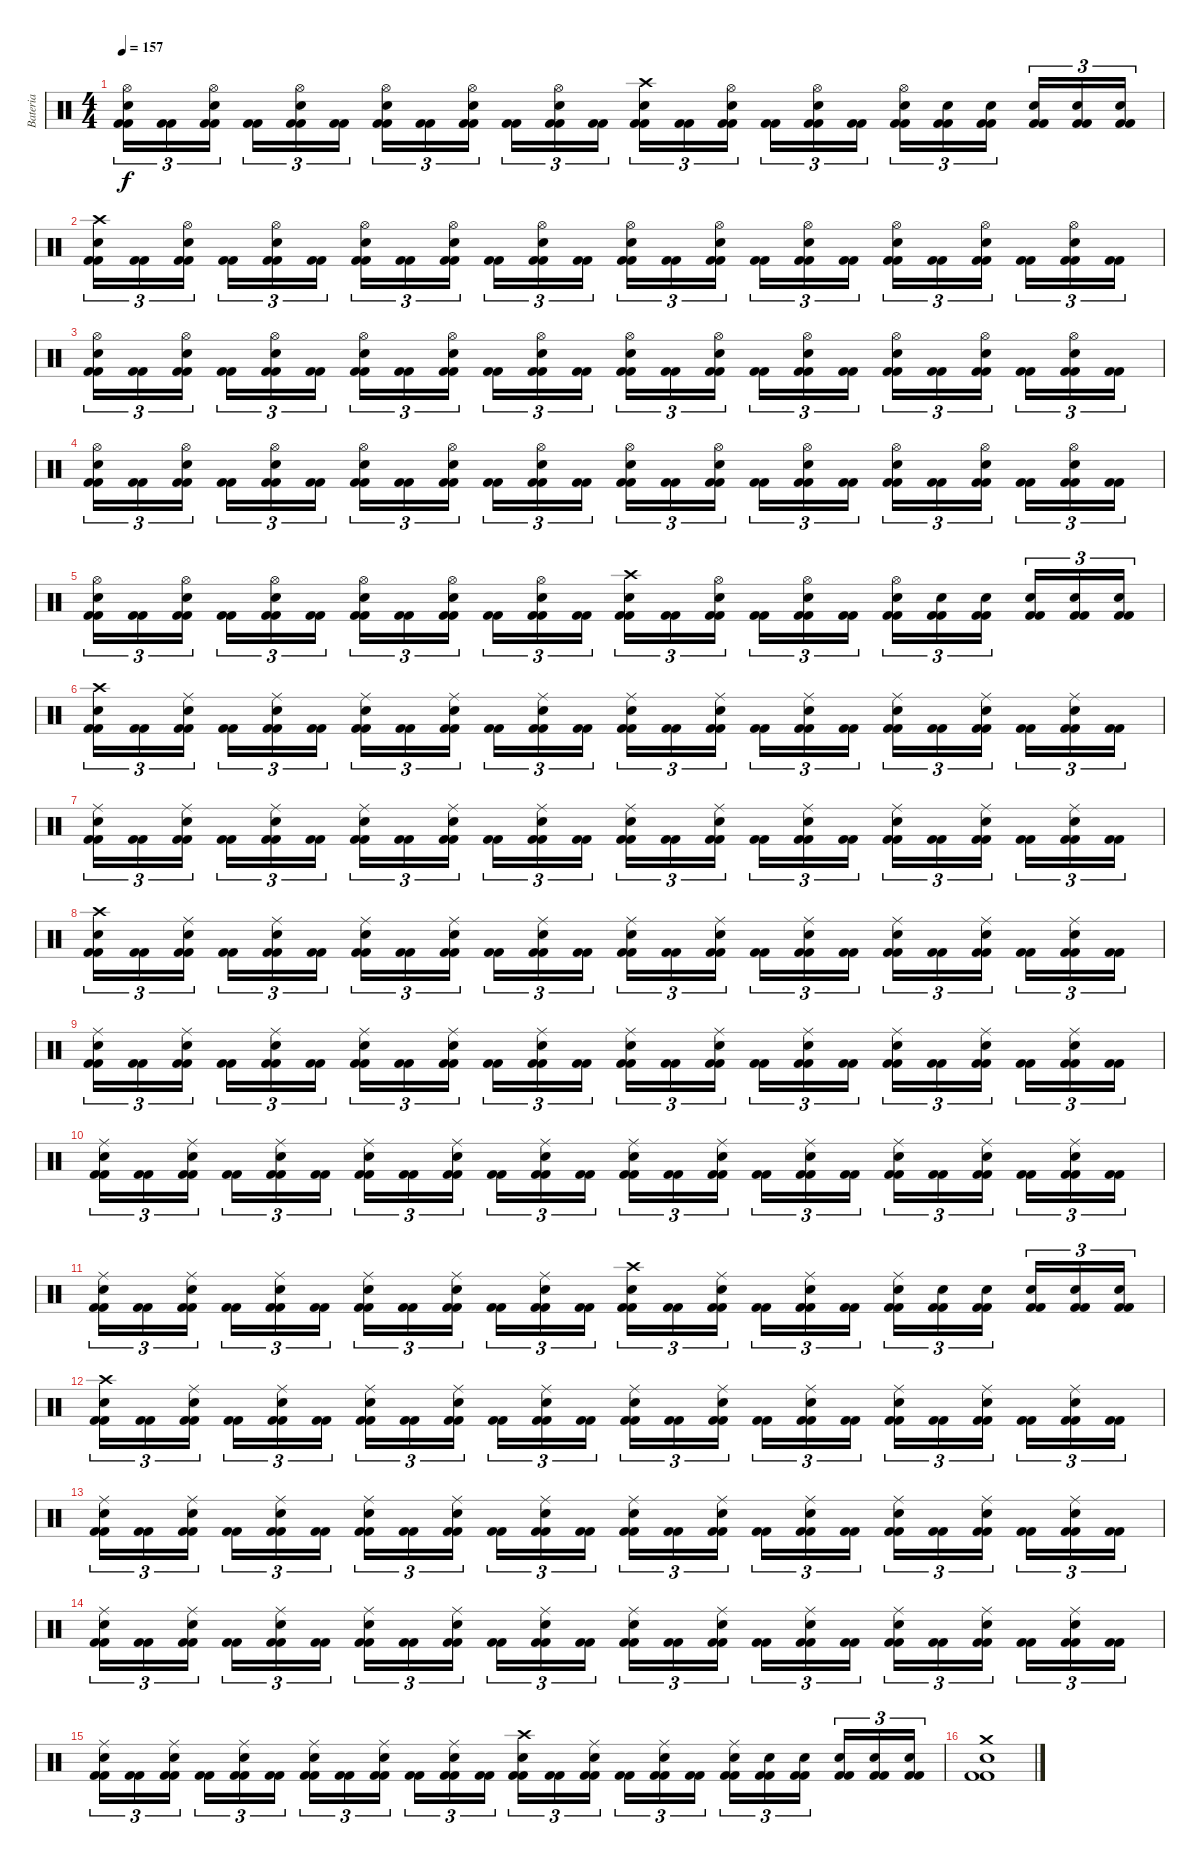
\track ("Bateria" "Bateria") {instrument percussion}
\staff {score}
\articulation defaults
\ts (4 4)
\tempo 157
\clef neutral
\ks c
("Kick (hit) 2" "Kick (hit) 2" "Snare (hit) 2" "Hi-Hat (open)").16{tu (3 2) dy f} ("Kick (hit) 2" "Kick (hit) 2").16{tu (3 2)} ("Kick (hit) 2" "Kick (hit) 2" "Snare (hit) 2" "Hi-Hat (open)").16{tu (3 2)} ("Kick (hit) 2" "Kick (hit) 2").16{tu (3 2)} ("Kick (hit) 2" "Kick (hit) 2" "Snare (hit) 2" "Hi-Hat (open)").16{tu (3 2)} ("Kick (hit) 2" "Kick (hit) 2").16{tu (3 2)} ("Kick (hit) 2" "Kick (hit) 2" "Snare (hit) 2" "Hi-Hat (open)").16{tu (3 2)} ("Kick (hit) 2" "Kick (hit) 2").16{tu (3 2)} ("Kick (hit) 2" "Kick (hit) 2" "Snare (hit) 2" "Hi-Hat (open)").16{tu (3 2)} ("Kick (hit) 2" "Kick (hit) 2").16{tu (3 2)} ("Kick (hit) 2" "Kick (hit) 2" "Snare (hit) 2" "Hi-Hat (open)").16{tu (3 2)} ("Kick (hit) 2" "Kick (hit) 2").16{tu (3 2)} ("Kick (hit) 2" "Kick (hit) 2" "Snare (hit) 2" "Crash high (hit)").16{tu (3 2)} ("Kick (hit) 2" "Kick (hit) 2").16{tu (3 2)} ("Kick (hit) 2" "Kick (hit) 2" "Snare (hit) 2" "Hi-Hat (open)").16{tu (3 2)} ("Kick (hit) 2" "Kick (hit) 2").16{tu (3 2)} ("Kick (hit) 2" "Kick (hit) 2" "Snare (hit) 2" "Hi-Hat (open)").16{tu (3 2)} ("Kick (hit) 2" "Kick (hit) 2").16{tu (3 2)} ("Kick (hit) 2" "Kick (hit) 2" "Snare (hit) 2" "Hi-Hat (open)").16{tu (3 2)} ("Kick (hit) 2" "Kick (hit) 2" "Snare (hit) 2").16{tu (3 2)} ("Kick (hit) 2" "Kick (hit) 2" "Snare (hit) 2").16{tu (3 2)} ("Kick (hit) 2" "Kick (hit) 2" "Snare (hit) 2").16{tu (3 2)} ("Kick (hit) 2" "Kick (hit) 2" "Snare (hit) 2").16{tu (3 2)} ("Kick (hit) 2" "Kick (hit) 2" "Snare (hit) 2").16{tu (3 2)} |
("Kick (hit) 2" "Kick (hit) 2" "Snare (hit) 2" "Crash high (hit)").16{tu (3 2)} ("Kick (hit) 2" "Kick (hit) 2").16{tu (3 2)} ("Kick (hit) 2" "Kick (hit) 2" "Snare (hit) 2" "Hi-Hat (open)").16{tu (3 2)} ("Kick (hit) 2" "Kick (hit) 2").16{tu (3 2)} ("Kick (hit) 2" "Kick (hit) 2" "Snare (hit) 2" "Hi-Hat (open)").16{tu (3 2)} ("Kick (hit) 2" "Kick (hit) 2").16{tu (3 2)} ("Kick (hit) 2" "Kick (hit) 2" "Snare (hit) 2" "Hi-Hat (open)").16{tu (3 2)} ("Kick (hit) 2" "Kick (hit) 2").16{tu (3 2)} ("Kick (hit) 2" "Kick (hit) 2" "Snare (hit) 2" "Hi-Hat (open)").16{tu (3 2)} ("Kick (hit) 2" "Kick (hit) 2").16{tu (3 2)} ("Kick (hit) 2" "Kick (hit) 2" "Snare (hit) 2" "Hi-Hat (open)").16{tu (3 2)} ("Kick (hit) 2" "Kick (hit) 2").16{tu (3 2)} ("Kick (hit) 2" "Kick (hit) 2" "Snare (hit) 2" "Hi-Hat (open)").16{tu (3 2)} ("Kick (hit) 2" "Kick (hit) 2").16{tu (3 2)} ("Kick (hit) 2" "Kick (hit) 2" "Snare (hit) 2" "Hi-Hat (open)").16{tu (3 2)} ("Kick (hit) 2" "Kick (hit) 2").16{tu (3 2)} ("Kick (hit) 2" "Kick (hit) 2" "Snare (hit) 2" "Hi-Hat (open)").16{tu (3 2)} ("Kick (hit) 2" "Kick (hit) 2").16{tu (3 2)} ("Kick (hit) 2" "Kick (hit) 2" "Snare (hit) 2" "Hi-Hat (open)").16{tu (3 2)} ("Kick (hit) 2" "Kick (hit) 2").16{tu (3 2)} ("Kick (hit) 2" "Kick (hit) 2" "Snare (hit) 2" "Hi-Hat (open)").16{tu (3 2)} ("Kick (hit) 2" "Kick (hit) 2").16{tu (3 2)} ("Kick (hit) 2" "Kick (hit) 2" "Snare (hit) 2" "Hi-Hat (open)").16{tu (3 2)} ("Kick (hit) 2" "Kick (hit) 2").16{tu (3 2)} |
("Kick (hit) 2" "Kick (hit) 2" "Snare (hit) 2" "Hi-Hat (open)").16{tu (3 2)} ("Kick (hit) 2" "Kick (hit) 2").16{tu (3 2)} ("Kick (hit) 2" "Kick (hit) 2" "Snare (hit) 2" "Hi-Hat (open)").16{tu (3 2)} ("Kick (hit) 2" "Kick (hit) 2").16{tu (3 2)} ("Kick (hit) 2" "Kick (hit) 2" "Snare (hit) 2" "Hi-Hat (open)").16{tu (3 2)} ("Kick (hit) 2" "Kick (hit) 2").16{tu (3 2)} ("Kick (hit) 2" "Kick (hit) 2" "Snare (hit) 2" "Hi-Hat (open)").16{tu (3 2)} ("Kick (hit) 2" "Kick (hit) 2").16{tu (3 2)} ("Kick (hit) 2" "Kick (hit) 2" "Snare (hit) 2" "Hi-Hat (open)").16{tu (3 2)} ("Kick (hit) 2" "Kick (hit) 2").16{tu (3 2)} ("Kick (hit) 2" "Kick (hit) 2" "Snare (hit) 2" "Hi-Hat (open)").16{tu (3 2)} ("Kick (hit) 2" "Kick (hit) 2").16{tu (3 2)} ("Kick (hit) 2" "Kick (hit) 2" "Snare (hit) 2" "Hi-Hat (open)").16{tu (3 2)} ("Kick (hit) 2" "Kick (hit) 2").16{tu (3 2)} ("Kick (hit) 2" "Kick (hit) 2" "Snare (hit) 2" "Hi-Hat (open)").16{tu (3 2)} ("Kick (hit) 2" "Kick (hit) 2").16{tu (3 2)} ("Kick (hit) 2" "Kick (hit) 2" "Snare (hit) 2" "Hi-Hat (open)").16{tu (3 2)} ("Kick (hit) 2" "Kick (hit) 2").16{tu (3 2)} ("Kick (hit) 2" "Kick (hit) 2" "Snare (hit) 2" "Hi-Hat (open)").16{tu (3 2)} ("Kick (hit) 2" "Kick (hit) 2").16{tu (3 2)} ("Kick (hit) 2" "Kick (hit) 2" "Snare (hit) 2" "Hi-Hat (open)").16{tu (3 2)} ("Kick (hit) 2" "Kick (hit) 2").16{tu (3 2)} ("Kick (hit) 2" "Kick (hit) 2" "Snare (hit) 2" "Hi-Hat (open)").16{tu (3 2)} ("Kick (hit) 2" "Kick (hit) 2").16{tu (3 2)} |
("Kick (hit) 2" "Kick (hit) 2" "Snare (hit) 2" "Hi-Hat (open)").16{tu (3 2)} ("Kick (hit) 2" "Kick (hit) 2").16{tu (3 2)} ("Kick (hit) 2" "Kick (hit) 2" "Snare (hit) 2" "Hi-Hat (open)").16{tu (3 2)} ("Kick (hit) 2" "Kick (hit) 2").16{tu (3 2)} ("Kick (hit) 2" "Kick (hit) 2" "Snare (hit) 2" "Hi-Hat (open)").16{tu (3 2)} ("Kick (hit) 2" "Kick (hit) 2").16{tu (3 2)} ("Kick (hit) 2" "Kick (hit) 2" "Snare (hit) 2" "Hi-Hat (open)").16{tu (3 2)} ("Kick (hit) 2" "Kick (hit) 2").16{tu (3 2)} ("Kick (hit) 2" "Kick (hit) 2" "Snare (hit) 2" "Hi-Hat (open)").16{tu (3 2)} ("Kick (hit) 2" "Kick (hit) 2").16{tu (3 2)} ("Kick (hit) 2" "Kick (hit) 2" "Snare (hit) 2" "Hi-Hat (open)").16{tu (3 2)} ("Kick (hit) 2" "Kick (hit) 2").16{tu (3 2)} ("Kick (hit) 2" "Kick (hit) 2" "Snare (hit) 2" "Hi-Hat (open)").16{tu (3 2)} ("Kick (hit) 2" "Kick (hit) 2").16{tu (3 2)} ("Kick (hit) 2" "Kick (hit) 2" "Snare (hit) 2" "Hi-Hat (open)").16{tu (3 2)} ("Kick (hit) 2" "Kick (hit) 2").16{tu (3 2)} ("Kick (hit) 2" "Kick (hit) 2" "Snare (hit) 2" "Hi-Hat (open)").16{tu (3 2)} ("Kick (hit) 2" "Kick (hit) 2").16{tu (3 2)} ("Kick (hit) 2" "Kick (hit) 2" "Snare (hit) 2" "Hi-Hat (open)").16{tu (3 2)} ("Kick (hit) 2" "Kick (hit) 2").16{tu (3 2)} ("Kick (hit) 2" "Kick (hit) 2" "Snare (hit) 2" "Hi-Hat (open)").16{tu (3 2)} ("Kick (hit) 2" "Kick (hit) 2").16{tu (3 2)} ("Kick (hit) 2" "Kick (hit) 2" "Snare (hit) 2" "Hi-Hat (open)").16{tu (3 2)} ("Kick (hit) 2" "Kick (hit) 2").16{tu (3 2)} |
("Kick (hit) 2" "Kick (hit) 2" "Snare (hit) 2" "Hi-Hat (open)").16{tu (3 2)} ("Kick (hit) 2" "Kick (hit) 2").16{tu (3 2)} ("Kick (hit) 2" "Kick (hit) 2" "Snare (hit) 2" "Hi-Hat (open)").16{tu (3 2)} ("Kick (hit) 2" "Kick (hit) 2").16{tu (3 2)} ("Kick (hit) 2" "Kick (hit) 2" "Snare (hit) 2" "Hi-Hat (open)").16{tu (3 2)} ("Kick (hit) 2" "Kick (hit) 2").16{tu (3 2)} ("Kick (hit) 2" "Kick (hit) 2" "Snare (hit) 2" "Hi-Hat (open)").16{tu (3 2)} ("Kick (hit) 2" "Kick (hit) 2").16{tu (3 2)} ("Kick (hit) 2" "Kick (hit) 2" "Snare (hit) 2" "Hi-Hat (open)").16{tu (3 2)} ("Kick (hit) 2" "Kick (hit) 2").16{tu (3 2)} ("Kick (hit) 2" "Kick (hit) 2" "Snare (hit) 2" "Hi-Hat (open)").16{tu (3 2)} ("Kick (hit) 2" "Kick (hit) 2").16{tu (3 2)} ("Kick (hit) 2" "Kick (hit) 2" "Snare (hit) 2" "Crash high (hit)").16{tu (3 2)} ("Kick (hit) 2" "Kick (hit) 2").16{tu (3 2)} ("Kick (hit) 2" "Kick (hit) 2" "Snare (hit) 2" "Hi-Hat (open)").16{tu (3 2)} ("Kick (hit) 2" "Kick (hit) 2").16{tu (3 2)} ("Kick (hit) 2" "Kick (hit) 2" "Snare (hit) 2" "Hi-Hat (open)").16{tu (3 2)} ("Kick (hit) 2" "Kick (hit) 2").16{tu (3 2)} ("Kick (hit) 2" "Kick (hit) 2" "Snare (hit) 2" "Hi-Hat (open)").16{tu (3 2)} ("Kick (hit) 2" "Kick (hit) 2" "Snare (hit) 2").16{tu (3 2)} ("Kick (hit) 2" "Kick (hit) 2" "Snare (hit) 2").16{tu (3 2)} ("Kick (hit) 2" "Kick (hit) 2" "Snare (hit) 2").16{tu (3 2)} ("Kick (hit) 2" "Kick (hit) 2" "Snare (hit) 2").16{tu (3 2)} ("Kick (hit) 2" "Kick (hit) 2" "Snare (hit) 2").16{tu (3 2)} |
("Kick (hit) 2" "Kick (hit) 2" "Snare (hit) 2" "Crash high (hit)").16{tu (3 2)} ("Kick (hit) 2" "Kick (hit) 2").16{tu (3 2)} ("Kick (hit) 2" "Kick (hit) 2" "Snare (hit) 2" "Ride (middle)").16{tu (3 2)} ("Kick (hit) 2" "Kick (hit) 2").16{tu (3 2)} ("Kick (hit) 2" "Kick (hit) 2" "Snare (hit) 2" "Ride (middle)").16{tu (3 2)} ("Kick (hit) 2" "Kick (hit) 2").16{tu (3 2)} ("Kick (hit) 2" "Kick (hit) 2" "Snare (hit) 2" "Ride (middle)").16{tu (3 2)} ("Kick (hit) 2" "Kick (hit) 2").16{tu (3 2)} ("Kick (hit) 2" "Kick (hit) 2" "Snare (hit) 2" "Ride (middle)").16{tu (3 2)} ("Kick (hit) 2" "Kick (hit) 2").16{tu (3 2)} ("Kick (hit) 2" "Kick (hit) 2" "Snare (hit) 2" "Ride (middle)").16{tu (3 2)} ("Kick (hit) 2" "Kick (hit) 2").16{tu (3 2)} ("Kick (hit) 2" "Kick (hit) 2" "Snare (hit) 2" "Ride (middle)").16{tu (3 2)} ("Kick (hit) 2" "Kick (hit) 2").16{tu (3 2)} ("Kick (hit) 2" "Kick (hit) 2" "Snare (hit) 2" "Ride (middle)").16{tu (3 2)} ("Kick (hit) 2" "Kick (hit) 2").16{tu (3 2)} ("Kick (hit) 2" "Kick (hit) 2" "Snare (hit) 2" "Ride (middle)").16{tu (3 2)} ("Kick (hit) 2" "Kick (hit) 2").16{tu (3 2)} ("Kick (hit) 2" "Kick (hit) 2" "Snare (hit) 2" "Ride (middle)").16{tu (3 2)} ("Kick (hit) 2" "Kick (hit) 2").16{tu (3 2)} ("Kick (hit) 2" "Kick (hit) 2" "Snare (hit) 2" "Ride (middle)").16{tu (3 2)} ("Kick (hit) 2" "Kick (hit) 2").16{tu (3 2)} ("Kick (hit) 2" "Kick (hit) 2" "Snare (hit) 2" "Ride (middle)").16{tu (3 2)} ("Kick (hit) 2" "Kick (hit) 2").16{tu (3 2)} |
("Kick (hit) 2" "Kick (hit) 2" "Snare (hit) 2" "Ride (middle)").16{tu (3 2)} ("Kick (hit) 2" "Kick (hit) 2").16{tu (3 2)} ("Kick (hit) 2" "Kick (hit) 2" "Snare (hit) 2" "Ride (middle)").16{tu (3 2)} ("Kick (hit) 2" "Kick (hit) 2").16{tu (3 2)} ("Kick (hit) 2" "Kick (hit) 2" "Snare (hit) 2" "Ride (middle)").16{tu (3 2)} ("Kick (hit) 2" "Kick (hit) 2").16{tu (3 2)} ("Kick (hit) 2" "Kick (hit) 2" "Snare (hit) 2" "Ride (middle)").16{tu (3 2)} ("Kick (hit) 2" "Kick (hit) 2").16{tu (3 2)} ("Kick (hit) 2" "Kick (hit) 2" "Snare (hit) 2" "Ride (middle)").16{tu (3 2)} ("Kick (hit) 2" "Kick (hit) 2").16{tu (3 2)} ("Kick (hit) 2" "Kick (hit) 2" "Snare (hit) 2" "Ride (middle)").16{tu (3 2)} ("Kick (hit) 2" "Kick (hit) 2").16{tu (3 2)} ("Kick (hit) 2" "Kick (hit) 2" "Snare (hit) 2" "Ride (middle)").16{tu (3 2)} ("Kick (hit) 2" "Kick (hit) 2").16{tu (3 2)} ("Kick (hit) 2" "Kick (hit) 2" "Snare (hit) 2" "Ride (middle)").16{tu (3 2)} ("Kick (hit) 2" "Kick (hit) 2").16{tu (3 2)} ("Kick (hit) 2" "Kick (hit) 2" "Snare (hit) 2" "Ride (middle)").16{tu (3 2)} ("Kick (hit) 2" "Kick (hit) 2").16{tu (3 2)} ("Kick (hit) 2" "Kick (hit) 2" "Snare (hit) 2" "Ride (middle)").16{tu (3 2)} ("Kick (hit) 2" "Kick (hit) 2").16{tu (3 2)} ("Kick (hit) 2" "Kick (hit) 2" "Snare (hit) 2" "Ride (middle)").16{tu (3 2)} ("Kick (hit) 2" "Kick (hit) 2").16{tu (3 2)} ("Kick (hit) 2" "Kick (hit) 2" "Snare (hit) 2" "Ride (middle)").16{tu (3 2)} ("Kick (hit) 2" "Kick (hit) 2").16{tu (3 2)} |
("Kick (hit) 2" "Kick (hit) 2" "Snare (hit) 2" "Crash high (hit)").16{tu (3 2)} ("Kick (hit) 2" "Kick (hit) 2").16{tu (3 2)} ("Kick (hit) 2" "Kick (hit) 2" "Snare (hit) 2" "Ride (middle)").16{tu (3 2)} ("Kick (hit) 2" "Kick (hit) 2").16{tu (3 2)} ("Kick (hit) 2" "Kick (hit) 2" "Snare (hit) 2" "Ride (middle)").16{tu (3 2)} ("Kick (hit) 2" "Kick (hit) 2").16{tu (3 2)} ("Kick (hit) 2" "Kick (hit) 2" "Snare (hit) 2" "Ride (middle)").16{tu (3 2)} ("Kick (hit) 2" "Kick (hit) 2").16{tu (3 2)} ("Kick (hit) 2" "Kick (hit) 2" "Snare (hit) 2" "Ride (middle)").16{tu (3 2)} ("Kick (hit) 2" "Kick (hit) 2").16{tu (3 2)} ("Kick (hit) 2" "Kick (hit) 2" "Snare (hit) 2" "Ride (middle)").16{tu (3 2)} ("Kick (hit) 2" "Kick (hit) 2").16{tu (3 2)} ("Kick (hit) 2" "Kick (hit) 2" "Snare (hit) 2" "Ride (middle)").16{tu (3 2)} ("Kick (hit) 2" "Kick (hit) 2").16{tu (3 2)} ("Kick (hit) 2" "Kick (hit) 2" "Snare (hit) 2" "Ride (middle)").16{tu (3 2)} ("Kick (hit) 2" "Kick (hit) 2").16{tu (3 2)} ("Kick (hit) 2" "Kick (hit) 2" "Snare (hit) 2" "Ride (middle)").16{tu (3 2)} ("Kick (hit) 2" "Kick (hit) 2").16{tu (3 2)} ("Kick (hit) 2" "Kick (hit) 2" "Snare (hit) 2" "Ride (middle)").16{tu (3 2)} ("Kick (hit) 2" "Kick (hit) 2").16{tu (3 2)} ("Kick (hit) 2" "Kick (hit) 2" "Snare (hit) 2" "Ride (middle)").16{tu (3 2)} ("Kick (hit) 2" "Kick (hit) 2").16{tu (3 2)} ("Kick (hit) 2" "Kick (hit) 2" "Snare (hit) 2" "Ride (middle)").16{tu (3 2)} ("Kick (hit) 2" "Kick (hit) 2").16{tu (3 2)} |
("Kick (hit) 2" "Kick (hit) 2" "Snare (hit) 2" "Ride (middle)").16{tu (3 2)} ("Kick (hit) 2" "Kick (hit) 2").16{tu (3 2)} ("Kick (hit) 2" "Kick (hit) 2" "Snare (hit) 2" "Ride (middle)").16{tu (3 2)} ("Kick (hit) 2" "Kick (hit) 2").16{tu (3 2)} ("Kick (hit) 2" "Kick (hit) 2" "Snare (hit) 2" "Ride (middle)").16{tu (3 2)} ("Kick (hit) 2" "Kick (hit) 2").16{tu (3 2)} ("Kick (hit) 2" "Kick (hit) 2" "Snare (hit) 2" "Ride (middle)").16{tu (3 2)} ("Kick (hit) 2" "Kick (hit) 2").16{tu (3 2)} ("Kick (hit) 2" "Kick (hit) 2" "Snare (hit) 2" "Ride (middle)").16{tu (3 2)} ("Kick (hit) 2" "Kick (hit) 2").16{tu (3 2)} ("Kick (hit) 2" "Kick (hit) 2" "Snare (hit) 2" "Ride (middle)").16{tu (3 2)} ("Kick (hit) 2" "Kick (hit) 2").16{tu (3 2)} ("Kick (hit) 2" "Kick (hit) 2" "Snare (hit) 2" "Ride (middle)").16{tu (3 2)} ("Kick (hit) 2" "Kick (hit) 2").16{tu (3 2)} ("Kick (hit) 2" "Kick (hit) 2" "Snare (hit) 2" "Ride (middle)").16{tu (3 2)} ("Kick (hit) 2" "Kick (hit) 2").16{tu (3 2)} ("Kick (hit) 2" "Kick (hit) 2" "Snare (hit) 2" "Ride (middle)").16{tu (3 2)} ("Kick (hit) 2" "Kick (hit) 2").16{tu (3 2)} ("Kick (hit) 2" "Kick (hit) 2" "Snare (hit) 2" "Ride (middle)").16{tu (3 2)} ("Kick (hit) 2" "Kick (hit) 2").16{tu (3 2)} ("Kick (hit) 2" "Kick (hit) 2" "Snare (hit) 2" "Ride (middle)").16{tu (3 2)} ("Kick (hit) 2" "Kick (hit) 2").16{tu (3 2)} ("Kick (hit) 2" "Kick (hit) 2" "Snare (hit) 2" "Ride (middle)").16{tu (3 2)} ("Kick (hit) 2" "Kick (hit) 2").16{tu (3 2)} |
("Kick (hit) 2" "Kick (hit) 2" "Snare (hit) 2" "Ride (middle)").16{tu (3 2)} ("Kick (hit) 2" "Kick (hit) 2").16{tu (3 2)} ("Kick (hit) 2" "Kick (hit) 2" "Snare (hit) 2" "Ride (middle)").16{tu (3 2)} ("Kick (hit) 2" "Kick (hit) 2").16{tu (3 2)} ("Kick (hit) 2" "Kick (hit) 2" "Snare (hit) 2" "Ride (middle)").16{tu (3 2)} ("Kick (hit) 2" "Kick (hit) 2").16{tu (3 2)} ("Kick (hit) 2" "Kick (hit) 2" "Snare (hit) 2" "Ride (middle)").16{tu (3 2)} ("Kick (hit) 2" "Kick (hit) 2").16{tu (3 2)} ("Kick (hit) 2" "Kick (hit) 2" "Snare (hit) 2" "Ride (middle)").16{tu (3 2)} ("Kick (hit) 2" "Kick (hit) 2").16{tu (3 2)} ("Kick (hit) 2" "Kick (hit) 2" "Snare (hit) 2" "Ride (middle)").16{tu (3 2)} ("Kick (hit) 2" "Kick (hit) 2").16{tu (3 2)} ("Kick (hit) 2" "Kick (hit) 2" "Snare (hit) 2" "Ride (middle)").16{tu (3 2)} ("Kick (hit) 2" "Kick (hit) 2").16{tu (3 2)} ("Kick (hit) 2" "Kick (hit) 2" "Snare (hit) 2" "Ride (middle)").16{tu (3 2)} ("Kick (hit) 2" "Kick (hit) 2").16{tu (3 2)} ("Kick (hit) 2" "Kick (hit) 2" "Snare (hit) 2" "Ride (middle)").16{tu (3 2)} ("Kick (hit) 2" "Kick (hit) 2").16{tu (3 2)} ("Kick (hit) 2" "Kick (hit) 2" "Snare (hit) 2" "Ride (middle)").16{tu (3 2)} ("Kick (hit) 2" "Kick (hit) 2").16{tu (3 2)} ("Kick (hit) 2" "Kick (hit) 2" "Snare (hit) 2" "Ride (middle)").16{tu (3 2)} ("Kick (hit) 2" "Kick (hit) 2").16{tu (3 2)} ("Kick (hit) 2" "Kick (hit) 2" "Snare (hit) 2" "Ride (middle)").16{tu (3 2)} ("Kick (hit) 2" "Kick (hit) 2").16{tu (3 2)} |
("Kick (hit) 2" "Kick (hit) 2" "Snare (hit) 2" "Ride (middle)").16{tu (3 2)} ("Kick (hit) 2" "Kick (hit) 2").16{tu (3 2)} ("Kick (hit) 2" "Kick (hit) 2" "Snare (hit) 2" "Ride (middle)").16{tu (3 2)} ("Kick (hit) 2" "Kick (hit) 2").16{tu (3 2)} ("Kick (hit) 2" "Kick (hit) 2" "Snare (hit) 2" "Ride (middle)").16{tu (3 2)} ("Kick (hit) 2" "Kick (hit) 2").16{tu (3 2)} ("Kick (hit) 2" "Kick (hit) 2" "Snare (hit) 2" "Ride (middle)").16{tu (3 2)} ("Kick (hit) 2" "Kick (hit) 2").16{tu (3 2)} ("Kick (hit) 2" "Kick (hit) 2" "Snare (hit) 2" "Ride (middle)").16{tu (3 2)} ("Kick (hit) 2" "Kick (hit) 2").16{tu (3 2)} ("Kick (hit) 2" "Kick (hit) 2" "Snare (hit) 2" "Ride (middle)").16{tu (3 2)} ("Kick (hit) 2" "Kick (hit) 2").16{tu (3 2)} ("Kick (hit) 2" "Kick (hit) 2" "Snare (hit) 2" "Crash high (hit)").16{tu (3 2)} ("Kick (hit) 2" "Kick (hit) 2").16{tu (3 2)} ("Kick (hit) 2" "Kick (hit) 2" "Snare (hit) 2" "Ride (middle)").16{tu (3 2)} ("Kick (hit) 2" "Kick (hit) 2").16{tu (3 2)} ("Kick (hit) 2" "Kick (hit) 2" "Snare (hit) 2" "Ride (middle)").16{tu (3 2)} ("Kick (hit) 2" "Kick (hit) 2").16{tu (3 2)} ("Kick (hit) 2" "Kick (hit) 2" "Snare (hit) 2" "Ride (middle)").16{tu (3 2)} ("Kick (hit) 2" "Kick (hit) 2" "Snare (hit) 2").16{tu (3 2)} ("Kick (hit) 2" "Kick (hit) 2" "Snare (hit) 2").16{tu (3 2)} ("Kick (hit) 2" "Kick (hit) 2" "Snare (hit) 2").16{tu (3 2)} ("Kick (hit) 2" "Kick (hit) 2" "Snare (hit) 2").16{tu (3 2)} ("Kick (hit) 2" "Kick (hit) 2" "Snare (hit) 2").16{tu (3 2)} |
("Kick (hit) 2" "Kick (hit) 2" "Snare (hit) 2" "Crash high (hit)").16{tu (3 2)} ("Kick (hit) 2" "Kick (hit) 2").16{tu (3 2)} ("Kick (hit) 2" "Kick (hit) 2" "Snare (hit) 2" "Ride (middle)").16{tu (3 2)} ("Kick (hit) 2" "Kick (hit) 2").16{tu (3 2)} ("Kick (hit) 2" "Kick (hit) 2" "Snare (hit) 2" "Ride (middle)").16{tu (3 2)} ("Kick (hit) 2" "Kick (hit) 2").16{tu (3 2)} ("Kick (hit) 2" "Kick (hit) 2" "Snare (hit) 2" "Ride (middle)").16{tu (3 2)} ("Kick (hit) 2" "Kick (hit) 2").16{tu (3 2)} ("Kick (hit) 2" "Kick (hit) 2" "Snare (hit) 2" "Ride (middle)").16{tu (3 2)} ("Kick (hit) 2" "Kick (hit) 2").16{tu (3 2)} ("Kick (hit) 2" "Kick (hit) 2" "Snare (hit) 2" "Ride (middle)").16{tu (3 2)} ("Kick (hit) 2" "Kick (hit) 2").16{tu (3 2)} ("Kick (hit) 2" "Kick (hit) 2" "Snare (hit) 2" "Ride (middle)").16{tu (3 2)} ("Kick (hit) 2" "Kick (hit) 2").16{tu (3 2)} ("Kick (hit) 2" "Kick (hit) 2" "Snare (hit) 2" "Ride (middle)").16{tu (3 2)} ("Kick (hit) 2" "Kick (hit) 2").16{tu (3 2)} ("Kick (hit) 2" "Kick (hit) 2" "Snare (hit) 2" "Ride (middle)").16{tu (3 2)} ("Kick (hit) 2" "Kick (hit) 2").16{tu (3 2)} ("Kick (hit) 2" "Kick (hit) 2" "Snare (hit) 2" "Ride (middle)").16{tu (3 2)} ("Kick (hit) 2" "Kick (hit) 2").16{tu (3 2)} ("Kick (hit) 2" "Kick (hit) 2" "Snare (hit) 2" "Ride (middle)").16{tu (3 2)} ("Kick (hit) 2" "Kick (hit) 2").16{tu (3 2)} ("Kick (hit) 2" "Kick (hit) 2" "Snare (hit) 2" "Ride (middle)").16{tu (3 2)} ("Kick (hit) 2" "Kick (hit) 2").16{tu (3 2)} |
("Kick (hit) 2" "Kick (hit) 2" "Snare (hit) 2" "Ride (middle)").16{tu (3 2)} ("Kick (hit) 2" "Kick (hit) 2").16{tu (3 2)} ("Kick (hit) 2" "Kick (hit) 2" "Snare (hit) 2" "Ride (middle)").16{tu (3 2)} ("Kick (hit) 2" "Kick (hit) 2").16{tu (3 2)} ("Kick (hit) 2" "Kick (hit) 2" "Snare (hit) 2" "Ride (middle)").16{tu (3 2)} ("Kick (hit) 2" "Kick (hit) 2").16{tu (3 2)} ("Kick (hit) 2" "Kick (hit) 2" "Snare (hit) 2" "Ride (middle)").16{tu (3 2)} ("Kick (hit) 2" "Kick (hit) 2").16{tu (3 2)} ("Kick (hit) 2" "Kick (hit) 2" "Snare (hit) 2" "Ride (middle)").16{tu (3 2)} ("Kick (hit) 2" "Kick (hit) 2").16{tu (3 2)} ("Kick (hit) 2" "Kick (hit) 2" "Snare (hit) 2" "Ride (middle)").16{tu (3 2)} ("Kick (hit) 2" "Kick (hit) 2").16{tu (3 2)} ("Kick (hit) 2" "Kick (hit) 2" "Snare (hit) 2" "Ride (middle)").16{tu (3 2)} ("Kick (hit) 2" "Kick (hit) 2").16{tu (3 2)} ("Kick (hit) 2" "Kick (hit) 2" "Snare (hit) 2" "Ride (middle)").16{tu (3 2)} ("Kick (hit) 2" "Kick (hit) 2").16{tu (3 2)} ("Kick (hit) 2" "Kick (hit) 2" "Snare (hit) 2" "Ride (middle)").16{tu (3 2)} ("Kick (hit) 2" "Kick (hit) 2").16{tu (3 2)} ("Kick (hit) 2" "Kick (hit) 2" "Snare (hit) 2" "Ride (middle)").16{tu (3 2)} ("Kick (hit) 2" "Kick (hit) 2").16{tu (3 2)} ("Kick (hit) 2" "Kick (hit) 2" "Snare (hit) 2" "Ride (middle)").16{tu (3 2)} ("Kick (hit) 2" "Kick (hit) 2").16{tu (3 2)} ("Kick (hit) 2" "Kick (hit) 2" "Snare (hit) 2" "Ride (middle)").16{tu (3 2)} ("Kick (hit) 2" "Kick (hit) 2").16{tu (3 2)} |
("Kick (hit) 2" "Kick (hit) 2" "Snare (hit) 2" "Ride (middle)").16{tu (3 2)} ("Kick (hit) 2" "Kick (hit) 2").16{tu (3 2)} ("Kick (hit) 2" "Kick (hit) 2" "Snare (hit) 2" "Ride (middle)").16{tu (3 2)} ("Kick (hit) 2" "Kick (hit) 2").16{tu (3 2)} ("Kick (hit) 2" "Kick (hit) 2" "Snare (hit) 2" "Ride (middle)").16{tu (3 2)} ("Kick (hit) 2" "Kick (hit) 2").16{tu (3 2)} ("Kick (hit) 2" "Kick (hit) 2" "Snare (hit) 2" "Ride (middle)").16{tu (3 2)} ("Kick (hit) 2" "Kick (hit) 2").16{tu (3 2)} ("Kick (hit) 2" "Kick (hit) 2" "Snare (hit) 2" "Ride (middle)").16{tu (3 2)} ("Kick (hit) 2" "Kick (hit) 2").16{tu (3 2)} ("Kick (hit) 2" "Kick (hit) 2" "Snare (hit) 2" "Ride (middle)").16{tu (3 2)} ("Kick (hit) 2" "Kick (hit) 2").16{tu (3 2)} ("Kick (hit) 2" "Kick (hit) 2" "Snare (hit) 2" "Ride (middle)").16{tu (3 2)} ("Kick (hit) 2" "Kick (hit) 2").16{tu (3 2)} ("Kick (hit) 2" "Kick (hit) 2" "Snare (hit) 2" "Ride (middle)").16{tu (3 2)} ("Kick (hit) 2" "Kick (hit) 2").16{tu (3 2)} ("Kick (hit) 2" "Kick (hit) 2" "Snare (hit) 2" "Ride (middle)").16{tu (3 2)} ("Kick (hit) 2" "Kick (hit) 2").16{tu (3 2)} ("Kick (hit) 2" "Kick (hit) 2" "Snare (hit) 2" "Ride (middle)").16{tu (3 2)} ("Kick (hit) 2" "Kick (hit) 2").16{tu (3 2)} ("Kick (hit) 2" "Kick (hit) 2" "Snare (hit) 2" "Ride (middle)").16{tu (3 2)} ("Kick (hit) 2" "Kick (hit) 2").16{tu (3 2)} ("Kick (hit) 2" "Kick (hit) 2" "Snare (hit) 2" "Ride (middle)").16{tu (3 2)} ("Kick (hit) 2" "Kick (hit) 2").16{tu (3 2)} |
("Kick (hit) 2" "Kick (hit) 2" "Snare (hit) 2" "Ride (middle)").16{tu (3 2)} ("Kick (hit) 2" "Kick (hit) 2").16{tu (3 2)} ("Kick (hit) 2" "Kick (hit) 2" "Snare (hit) 2" "Ride (middle)").16{tu (3 2)} ("Kick (hit) 2" "Kick (hit) 2").16{tu (3 2)} ("Kick (hit) 2" "Kick (hit) 2" "Snare (hit) 2" "Ride (middle)").16{tu (3 2)} ("Kick (hit) 2" "Kick (hit) 2").16{tu (3 2)} ("Kick (hit) 2" "Kick (hit) 2" "Snare (hit) 2" "Ride (middle)").16{tu (3 2)} ("Kick (hit) 2" "Kick (hit) 2").16{tu (3 2)} ("Kick (hit) 2" "Kick (hit) 2" "Snare (hit) 2" "Ride (middle)").16{tu (3 2)} ("Kick (hit) 2" "Kick (hit) 2").16{tu (3 2)} ("Kick (hit) 2" "Kick (hit) 2" "Snare (hit) 2" "Ride (middle)").16{tu (3 2)} ("Kick (hit) 2" "Kick (hit) 2").16{tu (3 2)} ("Kick (hit) 2" "Kick (hit) 2" "Snare (hit) 2" "Crash high (hit)").16{tu (3 2)} ("Kick (hit) 2" "Kick (hit) 2").16{tu (3 2)} ("Kick (hit) 2" "Kick (hit) 2" "Snare (hit) 2" "Ride (middle)").16{tu (3 2)} ("Kick (hit) 2" "Kick (hit) 2").16{tu (3 2)} ("Kick (hit) 2" "Kick (hit) 2" "Snare (hit) 2" "Ride (middle)").16{tu (3 2)} ("Kick (hit) 2" "Kick (hit) 2").16{tu (3 2)} ("Kick (hit) 2" "Kick (hit) 2" "Snare (hit) 2" "Ride (middle)").16{tu (3 2)} ("Kick (hit) 2" "Kick (hit) 2" "Snare (hit) 2").16{tu (3 2)} ("Kick (hit) 2" "Kick (hit) 2" "Snare (hit) 2").16{tu (3 2)} ("Kick (hit) 2" "Kick (hit) 2" "Snare (hit) 2").16{tu (3 2)} ("Kick (hit) 2" "Kick (hit) 2" "Snare (hit) 2").16{tu (3 2)} ("Kick (hit) 2" "Kick (hit) 2" "Snare (hit) 2").16{tu (3 2)} |
("Kick (hit) 2" "Kick (hit) 2" "Snare (hit) 2" "Crash medium (hit)").1
